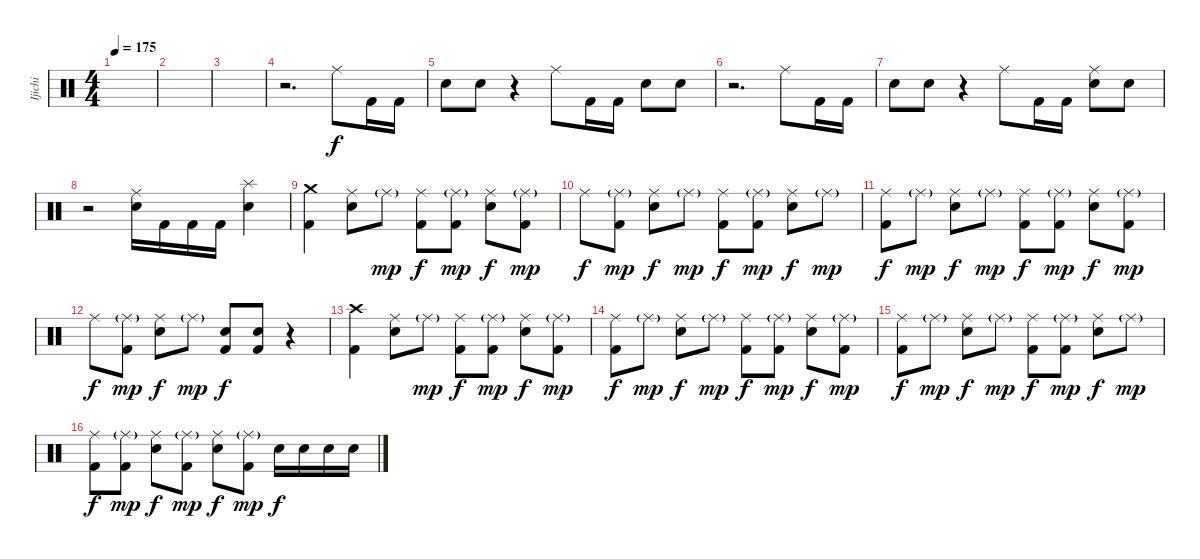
\track ("Ijichi" "Ijichi") {instrument percussion}
\staff {score}
\articulation defaults
\ts (4 4)
\tempo 175
\clef neutral
\ks c
|
|
|
r.2{d} "Ride (middle)".8 "Kick (hit) 2".16 "Kick (hit) 2".16 |
"Electric Snare (hit)".8 "Electric Snare (hit)".8 r.4 "Ride (middle)".8 "Kick (hit) 2".16 "Kick (hit) 2".16 "Electric Snare (hit)".8 "Electric Snare (hit)".8 |
r.2{d} "Ride (middle)".8 "Kick (hit) 2".16 "Kick (hit) 2".16 |
"Electric Snare (hit)".8 "Electric Snare (hit)".8 r.4 "Ride (middle)".8 "Kick (hit) 2".16 "Kick (hit) 2".16 ("Ride (middle)" "Electric Snare (hit)").8 "Electric Snare (hit)".8 |
r.2 ("Ride (middle)" "Electric Snare (hit)").16 "Kick (hit) 2".16 "Kick (hit) 2".16 "Kick (hit) 2".16 ("Splash (hit)" "Electric Snare (hit)").4 |
("Crash medium (hit)" "Kick (hit) 2").4 ("Ride (middle)" "Electric Snare (hit)").8 "Ride (middle)"{g}.8{dy mp} ("Ride (middle)" "Kick (hit) 2").8{dy f} ("Ride (middle)"{g} "Kick (hit) 2").8{dy mp} ("Ride (middle)" "Electric Snare (hit)").8{dy f} ("Ride (middle)"{g} "Kick (hit) 2").8{dy mp} |
"Ride (middle)".8{dy f} ("Ride (middle)"{g} "Kick (hit) 2").8{dy mp} ("Ride (middle)" "Electric Snare (hit)").8{dy f} "Ride (middle)"{g}.8{dy mp} ("Ride (middle)" "Kick (hit) 2").8{dy f} ("Ride (middle)"{g} "Kick (hit) 2").8{dy mp} ("Ride (middle)" "Electric Snare (hit)").8{dy f} "Ride (middle)"{g}.8{dy mp} |
("Ride (middle)" "Kick (hit) 2").8{dy f} "Ride (middle)"{g}.8{dy mp} ("Ride (middle)" "Electric Snare (hit)").8{dy f} "Ride (middle)"{g}.8{dy mp} ("Ride (middle)" "Kick (hit) 2").8{dy f} ("Ride (middle)"{g} "Kick (hit) 2").8{dy mp} ("Ride (middle)" "Electric Snare (hit)").8{dy f} ("Ride (middle)"{g} "Kick (hit) 2").8{dy mp} |
"Ride (middle)".8{dy f} ("Ride (middle)"{g} "Kick (hit) 2").8{dy mp} ("Ride (middle)" "Electric Snare (hit)").8{dy f} "Ride (middle)"{g}.8{dy mp} ("Electric Snare (hit)" "Kick (hit) 2").8{dy f} ("Electric Snare (hit)" "Kick (hit) 2").8 r.4 |
("Crash high (hit)" "Kick (hit) 2").4 ("Ride (middle)" "Electric Snare (hit)").8 "Ride (middle)"{g}.8{dy mp} ("Ride (middle)" "Kick (hit) 2").8{dy f} ("Ride (middle)"{g} "Kick (hit) 2").8{dy mp} ("Ride (middle)" "Electric Snare (hit)").8{dy f} ("Ride (middle)"{g} "Kick (hit) 2").8{dy mp} |
("Ride (middle)" "Kick (hit) 2").8{dy f} "Ride (middle)"{g}.8{dy mp} ("Ride (middle)" "Electric Snare (hit)").8{dy f} "Ride (middle)"{g}.8{dy mp} ("Ride (middle)" "Kick (hit) 2").8{dy f} ("Ride (middle)"{g} "Kick (hit) 2").8{dy mp} ("Ride (middle)" "Electric Snare (hit)").8{dy f} ("Ride (middle)"{g} "Kick (hit) 2").8{dy mp} |
("Ride (middle)" "Kick (hit) 2").8{dy f} "Ride (middle)"{g}.8{dy mp} ("Ride (middle)" "Electric Snare (hit)").8{dy f} "Ride (middle)"{g}.8{dy mp} ("Ride (middle)" "Kick (hit) 2").8{dy f} ("Ride (middle)"{g} "Kick (hit) 2").8{dy mp} ("Ride (middle)" "Electric Snare (hit)").8{dy f} "Ride (middle)"{g}.8{dy mp} |
("Ride (middle)" "Kick (hit) 2").8{dy f} ("Ride (middle)"{g} "Kick (hit) 2").8{dy mp} ("Ride (middle)" "Electric Snare (hit)").8{dy f} ("Ride (middle)"{g} "Kick (hit) 2").8{dy mp} ("Ride (middle)" "Electric Snare (hit)").8{dy f} ("Ride (middle)"{g} "Kick (hit) 2").8{dy mp} "Electric Snare (hit)".16{dy f} "Electric Snare (hit)".16 "Electric Snare (hit)".16 "Electric Snare (hit)".16
